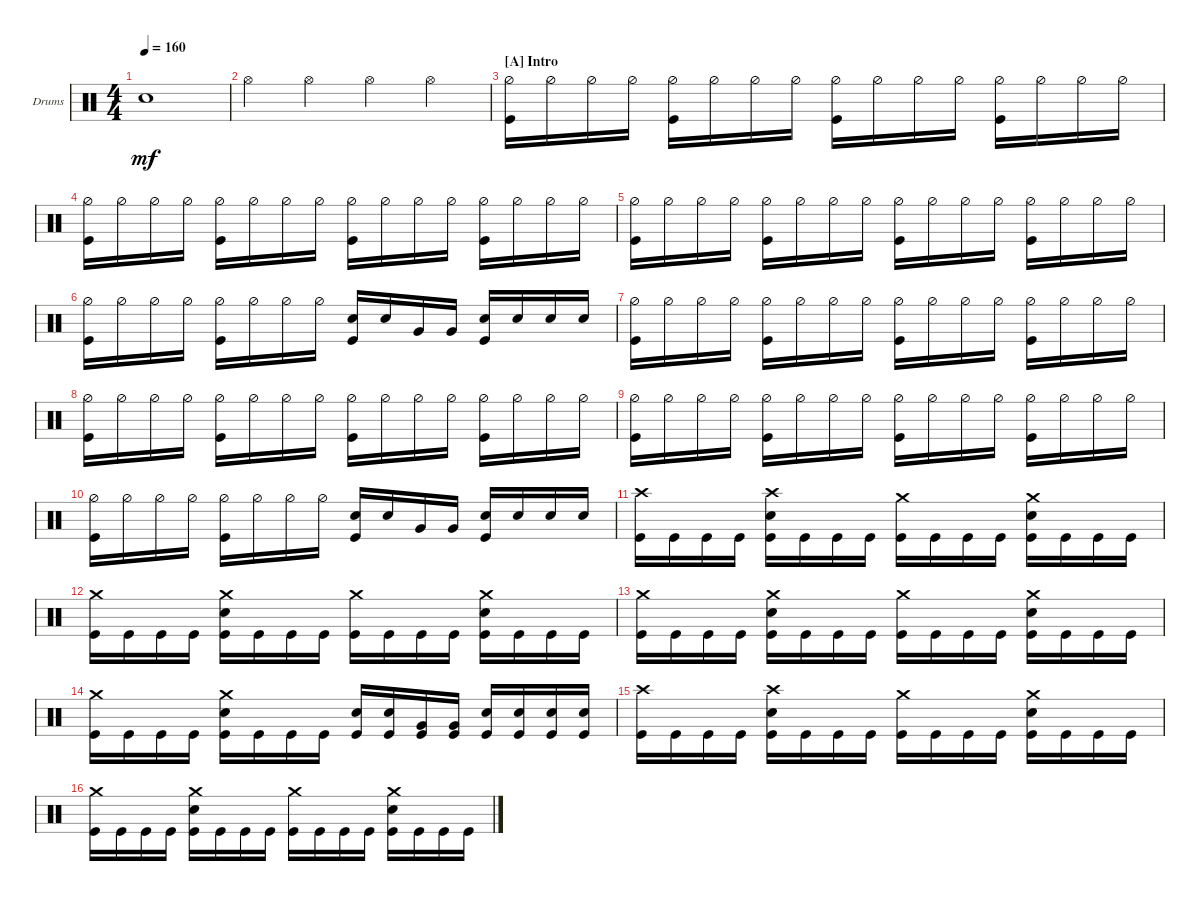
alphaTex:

\bracketExtendMode groupsimilarinstruments
\firstSystemTrackNameOrientation horizontal
\otherSystemsTrackNameOrientation horizontal
\track ("Nick Augusto" "Drums") {instrument percussion}
\staff {score}
\articulation defaults
\ts (4 4)
\tempo 160
\clef neutral
\ks c "Snare (hit) 2".1{dy mf}
|
"Hi-Hat (open)".4 "Hi-Hat (open)".4 "Hi-Hat (open)".4 "Hi-Hat (open)".4 |
\section ("A" "Intro")
("Kick (hit)" "Hi-Hat (half)").16 "Hi-Hat (half)".16 "Hi-Hat (half)".16 "Hi-Hat (half)".16 ("Hi-Hat (half)" "Kick (hit)").16 "Hi-Hat (half)".16 "Hi-Hat (half)".16 "Hi-Hat (half)".16 ("Hi-Hat (half)" "Kick (hit)").16 "Hi-Hat (half)".16 "Hi-Hat (half)".16 "Hi-Hat (half)".16 ("Hi-Hat (half)" "Kick (hit)").16 "Hi-Hat (half)".16 "Hi-Hat (half)".16 "Hi-Hat (half)".16 |
("Kick (hit)" "Hi-Hat (half)").16 "Hi-Hat (half)".16 "Hi-Hat (half)".16 "Hi-Hat (half)".16 ("Hi-Hat (half)" "Kick (hit)").16 "Hi-Hat (half)".16 "Hi-Hat (half)".16 "Hi-Hat (half)".16 ("Hi-Hat (half)" "Kick (hit)").16 "Hi-Hat (half)".16 "Hi-Hat (half)".16 "Hi-Hat (half)".16 ("Hi-Hat (half)" "Kick (hit)").16 "Hi-Hat (half)".16 "Hi-Hat (half)".16 "Hi-Hat (half)".16 |
("Kick (hit)" "Hi-Hat (half)").16 "Hi-Hat (half)".16 "Hi-Hat (half)".16 "Hi-Hat (half)".16 ("Hi-Hat (half)" "Kick (hit)").16 "Hi-Hat (half)".16 "Hi-Hat (half)".16 "Hi-Hat (half)".16 ("Hi-Hat (half)" "Kick (hit)").16 "Hi-Hat (half)".16 "Hi-Hat (half)".16 "Hi-Hat (half)".16 ("Hi-Hat (half)" "Kick (hit)").16 "Hi-Hat (half)".16 "Hi-Hat (half)".16 "Hi-Hat (half)".16 |
("Kick (hit)" "Hi-Hat (half)").16 "Hi-Hat (half)".16 "Hi-Hat (half)".16 "Hi-Hat (half)".16 ("Hi-Hat (half)" "Kick (hit)").16 "Hi-Hat (half)".16 "Hi-Hat (half)".16 "Hi-Hat (half)".16 ("Snare (hit) 2" "Kick (hit)").16 "Snare (hit) 2".16 "Very Low Tom (hit)".16 "Very Low Tom (hit)".16 ("Snare (hit) 2" "Kick (hit)").16 "Snare (hit) 2".16 "Snare (hit) 2".16 "Snare (hit) 2".16 |
("Kick (hit)" "Hi-Hat (half)").16 "Hi-Hat (half)".16 "Hi-Hat (half)".16 "Hi-Hat (half)".16 ("Hi-Hat (half)" "Kick (hit)").16 "Hi-Hat (half)".16 "Hi-Hat (half)".16 "Hi-Hat (half)".16 ("Hi-Hat (half)" "Kick (hit)").16 "Hi-Hat (half)".16 "Hi-Hat (half)".16 "Hi-Hat (half)".16 ("Hi-Hat (half)" "Kick (hit)").16 "Hi-Hat (half)".16 "Hi-Hat (half)".16 "Hi-Hat (half)".16 |
("Kick (hit)" "Hi-Hat (half)").16 "Hi-Hat (half)".16 "Hi-Hat (half)".16 "Hi-Hat (half)".16 ("Hi-Hat (half)" "Kick (hit)").16 "Hi-Hat (half)".16 "Hi-Hat (half)".16 "Hi-Hat (half)".16 ("Hi-Hat (half)" "Kick (hit)").16 "Hi-Hat (half)".16 "Hi-Hat (half)".16 "Hi-Hat (half)".16 ("Hi-Hat (half)" "Kick (hit)").16 "Hi-Hat (half)".16 "Hi-Hat (half)".16 "Hi-Hat (half)".16 |
("Kick (hit)" "Hi-Hat (half)").16 "Hi-Hat (half)".16 "Hi-Hat (half)".16 "Hi-Hat (half)".16 ("Hi-Hat (half)" "Kick (hit)").16 "Hi-Hat (half)".16 "Hi-Hat (half)".16 "Hi-Hat (half)".16 ("Hi-Hat (half)" "Kick (hit)").16 "Hi-Hat (half)".16 "Hi-Hat (half)".16 "Hi-Hat (half)".16 ("Hi-Hat (half)" "Kick (hit)").16 "Hi-Hat (half)".16 "Hi-Hat (half)".16 "Hi-Hat (half)".16 |
("Kick (hit)" "Hi-Hat (half)").16 "Hi-Hat (half)".16 "Hi-Hat (half)".16 "Hi-Hat (half)".16 ("Hi-Hat (half)" "Kick (hit)").16 "Hi-Hat (half)".16 "Hi-Hat (half)".16 "Hi-Hat (half)".16 ("Snare (hit) 2" "Kick (hit)").16 "Snare (hit) 2".16 "Very Low Tom (hit)".16 "Very Low Tom (hit)".16 ("Snare (hit) 2" "Kick (hit)").16 "Snare (hit) 2".16 "Snare (hit) 2".16 "Snare (hit) 2".16 |
("Kick (hit)" "Crash high (hit)").16 "Kick (hit)".16 "Kick (hit)".16 "Kick (hit)".16 ("Kick (hit)" "Snare (hit) 2" "Crash high (hit)").16 "Kick (hit)".16 "Kick (hit)".16 "Kick (hit)".16 ("Kick (hit)" "Crash medium (hit)").16 "Kick (hit)".16 "Kick (hit)".16 "Kick (hit)".16 ("Kick (hit)" "Snare (hit) 2" "Crash medium (hit)").16 "Kick (hit)".16 "Kick (hit)".16 "Kick (hit)".16 |
("Kick (hit)" "Crash medium (hit)").16 "Kick (hit)".16 "Kick (hit)".16 "Kick (hit)".16 ("Kick (hit)" "Snare (hit) 2" "Crash medium (hit)").16 "Kick (hit)".16 "Kick (hit)".16 "Kick (hit)".16 ("Kick (hit)" "Crash medium (hit)").16 "Kick (hit)".16 "Kick (hit)".16 "Kick (hit)".16 ("Kick (hit)" "Snare (hit) 2" "Crash medium (hit)").16 "Kick (hit)".16 "Kick (hit)".16 "Kick (hit)".16 |
("Kick (hit)" "Crash medium (hit)").16 "Kick (hit)".16 "Kick (hit)".16 "Kick (hit)".16 ("Kick (hit)" "Snare (hit) 2" "Crash medium (hit)").16 "Kick (hit)".16 "Kick (hit)".16 "Kick (hit)".16 ("Kick (hit)" "Crash medium (hit)").16 "Kick (hit)".16 "Kick (hit)".16 "Kick (hit)".16 ("Kick (hit)" "Snare (hit) 2" "Crash medium (hit)").16 "Kick (hit)".16 "Kick (hit)".16 "Kick (hit)".16 |
("Kick (hit)" "Crash medium (hit)").16 "Kick (hit)".16 "Kick (hit)".16 "Kick (hit)".16 ("Kick (hit)" "Snare (hit) 2" "Crash medium (hit)").16 "Kick (hit)".16 "Kick (hit)".16 "Kick (hit)".16 ("Kick (hit)" "Snare (hit) 2").16 ("Kick (hit)" "Snare (hit) 2").16 ("Kick (hit)" "Very Low Tom (hit)").16 ("Kick (hit)" "Very Low Tom (hit)").16 ("Kick (hit)" "Snare (hit) 2").16 ("Kick (hit)" "Snare (hit) 2").16 ("Kick (hit)" "Snare (hit) 2").16 ("Kick (hit)" "Snare (hit) 2").16 |
("Kick (hit)" "Crash high (hit)").16 "Kick (hit)".16 "Kick (hit)".16 "Kick (hit)".16 ("Kick (hit)" "Snare (hit) 2" "Crash high (hit)").16 "Kick (hit)".16 "Kick (hit)".16 "Kick (hit)".16 ("Kick (hit)" "Crash medium (hit)").16 "Kick (hit)".16 "Kick (hit)".16 "Kick (hit)".16 ("Kick (hit)" "Snare (hit) 2" "Crash medium (hit)").16 "Kick (hit)".16 "Kick (hit)".16 "Kick (hit)".16 |
("Kick (hit)" "Crash medium (hit)").16 "Kick (hit)".16 "Kick (hit)".16 "Kick (hit)".16 ("Kick (hit)" "Snare (hit) 2" "Crash medium (hit)").16 "Kick (hit)".16 "Kick (hit)".16 "Kick (hit)".16 ("Kick (hit)" "Crash medium (hit)").16 "Kick (hit)".16 "Kick (hit)".16 "Kick (hit)".16 ("Kick (hit)" "Snare (hit) 2" "Crash medium (hit)").16 "Kick (hit)".16 "Kick (hit)".16 "Kick (hit)".16
